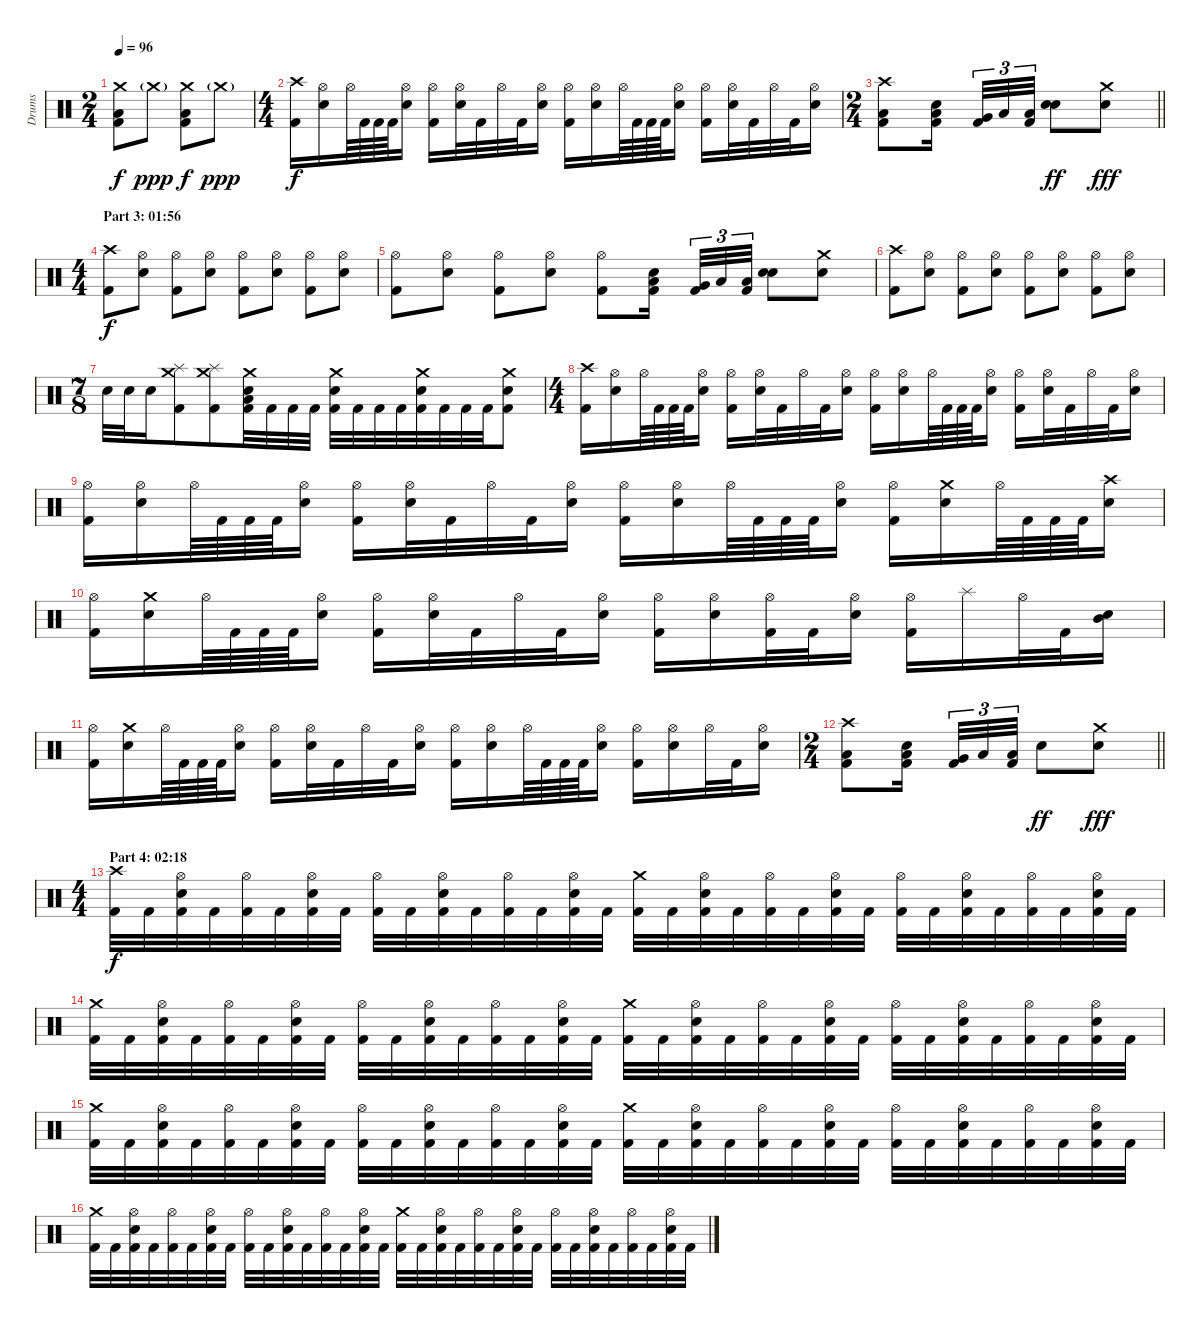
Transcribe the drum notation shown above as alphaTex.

\track ("Drums" "Drums") {instrument percussion}
\staff {score}
\articulation defaults
\ts (2 4)
\tempo 96
\clef neutral
\ks c
("Crash medium (hit)" "Low Floor Tom (hit)" "Kick (hit) 2").8{dy f} "Crash medium (hit)"{g}.8{dy ppp} ("Crash medium (hit)" "Low Floor Tom (hit)" "Kick (hit) 2").8{dy f} "Crash medium (hit)"{g}.8{dy ppp} |
\ts (4 4)
("Crash high (hit)" "Kick (hit) 2").16{dy f} ("Hi-Hat (open)" "Electric Snare (hit)").16 "Hi-Hat (open)".64 "Kick (hit) 2".64 "Kick (hit) 2".64 "Kick (hit) 2".64 ("Hi-Hat (open)" "Electric Snare (hit)").16 ("Hi-Hat (open)" "Kick (hit) 2").16 ("Hi-Hat (open)" "Electric Snare (hit)").32 "Kick (hit) 2".32 "Hi-Hat (open)".32 "Kick (hit) 2".32 ("Hi-Hat (open)" "Electric Snare (hit)").16 ("Hi-Hat (open)" "Kick (hit) 2").16 ("Hi-Hat (open)" "Electric Snare (hit)").16 "Hi-Hat (open)".64 "Kick (hit) 2".64 "Kick (hit) 2".64 "Kick (hit) 2".64 ("Hi-Hat (open)" "Electric Snare (hit)").16 ("Hi-Hat (open)" "Kick (hit) 2").16 ("Hi-Hat (open)" "Electric Snare (hit)").32 "Kick (hit) 2".32 "Hi-Hat (open)".32 "Kick (hit) 2".32 ("Hi-Hat (open)" "Electric Snare (hit)").16 |
\ts (2 4)
\barLineRight lightlight
("Crash high (hit)" "Low Floor Tom (hit)" "Kick (hit) 2").8 ("Low Tom (hit)" "Electric Snare (hit)" "Kick (hit) 2").16{bd 30 beam splitsecondary} ("Very Low Tom (hit)" "Kick (hit) 2").32{tu (3 2) bd 30} "Low Floor Tom (hit)".32{tu (3 2)} ("Low Floor Tom (hit)" "Kick (hit) 2").32{tu (3 2)} ("Electric Snare (hit)" "Electric Snare (hit)").8{bd 30 dy ff} ("Crash medium (hit)" "Electric Snare (hit)").8{dy fff} |
\ts (4 4)
\section ("" "Part 3: 01:56")
("Crash high (hit)" "Kick (hit) 2").8{dy f} ("Hi-Hat (open)" "Electric Snare (hit)").8 ("Hi-Hat (open)" "Kick (hit) 2").8 ("Hi-Hat (open)" "Electric Snare (hit)").8 ("Hi-Hat (open)" "Kick (hit) 2").8 ("Hi-Hat (open)" "Electric Snare (hit)").8 ("Hi-Hat (open)" "Kick (hit) 2").8 ("Hi-Hat (open)" "Electric Snare (hit)").8 |
("Hi-Hat (open)" "Kick (hit) 2").8 ("Hi-Hat (open)" "Electric Snare (hit)").8 ("Hi-Hat (open)" "Kick (hit) 2").8 ("Hi-Hat (open)" "Electric Snare (hit)").8 ("Hi-Hat (open)" "Kick (hit) 2").8 ("Low Tom (hit)" "Electric Snare (hit)" "Kick (hit) 2").16{bd 30 beam splitsecondary} ("Very Low Tom (hit)" "Kick (hit) 2").32{tu (3 2) bd 30} "Low Floor Tom (hit)".32{tu (3 2)} ("Low Floor Tom (hit)" "Kick (hit) 2").32{tu (3 2)} ("Electric Snare (hit)" "Electric Snare (hit)").8{bd 30} ("Crash medium (hit)" "Electric Snare (hit)").8 |
("Crash high (hit)" "Kick (hit) 2").8 ("Hi-Hat (open)" "Electric Snare (hit)").8 ("Hi-Hat (open)" "Kick (hit) 2").8 ("Hi-Hat (open)" "Electric Snare (hit)").8 ("Hi-Hat (open)" "Kick (hit) 2").8 ("Hi-Hat (open)" "Electric Snare (hit)").8 ("Hi-Hat (open)" "Kick (hit) 2").8 ("Hi-Hat (open)" "Electric Snare (hit)").8 |
\ts (7 8)
"Electric Snare (hit)".32 "Electric Snare (hit)".32 "Electric Snare (hit)".16 ("Splash (hit)" "Crash medium (hit)" "Kick (hit) 2").8 ("Splash (hit)" "Crash medium (hit)" "Kick (hit) 2").8 ("Crash medium (hit)" "Low Tom (hit)" "Electric Snare (hit)" "Kick (hit) 2").32{bd 30} "Kick (hit) 2".32 "Kick (hit) 2".32 "Kick (hit) 2".32 ("Crash medium (hit)" "Electric Snare (hit)" "Kick (hit) 2").32 "Kick (hit) 2".32 "Kick (hit) 2".32 "Kick (hit) 2".32 ("Crash medium (hit)" "Electric Snare (hit)" "Kick (hit) 2").32 "Kick (hit) 2".32 "Kick (hit) 2".32 "Kick (hit) 2".32 ("Crash medium (hit)" "Electric Snare (hit)" "Kick (hit) 2").8 |
\ts (4 4)
("Crash high (hit)" "Kick (hit) 2").16 ("Hi-Hat (open)" "Electric Snare (hit)").16 "Hi-Hat (open)".64 "Kick (hit) 2".64 "Kick (hit) 2".64 "Kick (hit) 2".64 ("Hi-Hat (open)" "Electric Snare (hit)").16 ("Hi-Hat (open)" "Kick (hit) 2").16 ("Hi-Hat (open)" "Electric Snare (hit)").32 "Kick (hit) 2".32 "Hi-Hat (open)".32 "Kick (hit) 2".32 ("Hi-Hat (open)" "Electric Snare (hit)").16 ("Hi-Hat (open)" "Kick (hit) 2").16 ("Hi-Hat (open)" "Electric Snare (hit)").16 "Hi-Hat (open)".64 "Kick (hit) 2".64 "Kick (hit) 2".64 "Kick (hit) 2".64 ("Hi-Hat (open)" "Electric Snare (hit)").16 ("Hi-Hat (open)" "Kick (hit) 2").16 ("Hi-Hat (open)" "Electric Snare (hit)").32 "Kick (hit) 2".32 "Hi-Hat (open)".32 "Kick (hit) 2".32 ("Hi-Hat (open)" "Electric Snare (hit)").16 |
("Hi-Hat (open)" "Kick (hit) 2").16 ("Hi-Hat (open)" "Electric Snare (hit)").16 "Hi-Hat (open)".64 "Kick (hit) 2".64 "Kick (hit) 2".64 "Kick (hit) 2".64 ("Hi-Hat (open)" "Electric Snare (hit)").16 ("Hi-Hat (open)" "Kick (hit) 2").16 ("Hi-Hat (open)" "Electric Snare (hit)").32 "Kick (hit) 2".32 "Hi-Hat (open)".32 "Kick (hit) 2".32 ("Hi-Hat (open)" "Electric Snare (hit)").16 ("Hi-Hat (open)" "Kick (hit) 2").16 ("Hi-Hat (open)" "Electric Snare (hit)").16 "Hi-Hat (open)".64 "Kick (hit) 2".64 "Kick (hit) 2".64 "Kick (hit) 2".64 ("Hi-Hat (open)" "Electric Snare (hit)").16 ("Hi-Hat (open)" "Kick (hit) 2").16 ("Crash medium (hit)" "Electric Snare (hit)").16 "Hi-Hat (open)".64 "Kick (hit) 2".64 "Kick (hit) 2".64 "Kick (hit) 2".64 ("Crash high (hit)" "Electric Snare (hit)").16 |
("Hi-Hat (open)" "Kick (hit) 2").16 ("Crash medium (hit)" "Electric Snare (hit)").16 "Hi-Hat (open)".64 "Kick (hit) 2".64 "Kick (hit) 2".64 "Kick (hit) 2".64 ("Hi-Hat (open)" "Electric Snare (hit)").16 ("Hi-Hat (open)" "Kick (hit) 2").16 ("Hi-Hat (open)" "Electric Snare (hit)").32 "Kick (hit) 2".32 "Hi-Hat (open)".32 "Kick (hit) 2".32 ("Hi-Hat (open)" "Electric Snare (hit)").16 ("Hi-Hat (open)" "Kick (hit) 2").16 ("Hi-Hat (open)" "Electric Snare (hit)").16 ("Hi-Hat (open)" "Kick (hit) 2").32 "Kick (hit) 2".32 ("Hi-Hat (open)" "Electric Snare (hit)").16 ("Hi-Hat (open)" "Kick (hit) 2").16 "Splash (hit)".16 "Hi-Hat (open)".32 "Kick (hit) 2".32 ("Mid Tom (hit)" "Electric Snare (hit)").16{bd 60} |
("Hi-Hat (open)" "Kick (hit) 2").16 ("Crash medium (hit)" "Electric Snare (hit)").16 "Hi-Hat (open)".64 "Kick (hit) 2".64 "Kick (hit) 2".64 "Kick (hit) 2".64 ("Hi-Hat (open)" "Electric Snare (hit)").16 ("Hi-Hat (open)" "Kick (hit) 2").16 ("Hi-Hat (open)" "Electric Snare (hit)").32 "Kick (hit) 2".32 "Hi-Hat (open)".32 "Kick (hit) 2".32 ("Hi-Hat (open)" "Electric Snare (hit)").16 ("Hi-Hat (open)" "Kick (hit) 2").16 ("Hi-Hat (open)" "Electric Snare (hit)").16 "Hi-Hat (open)".64 "Kick (hit) 2".64 "Kick (hit) 2".64 "Kick (hit) 2".64 ("Hi-Hat (open)" "Electric Snare (hit)").16 ("Hi-Hat (open)" "Kick (hit) 2").16 ("Hi-Hat (open)" "Electric Snare (hit)").16 "Hi-Hat (open)".32 "Kick (hit) 2".32 ("Hi-Hat (open)" "Electric Snare (hit)").16 |
\ts (2 4)
\barLineRight lightlight
("Crash high (hit)" "Low Floor Tom (hit)" "Kick (hit) 2").8 ("Low Tom (hit)" "Electric Snare (hit)" "Kick (hit) 2").16{bd 30 beam splitsecondary} ("Very Low Tom (hit)" "Kick (hit) 2").32{tu (3 2) bd 30} "Low Floor Tom (hit)".32{tu (3 2)} ("Low Floor Tom (hit)" "Kick (hit) 2").32{tu (3 2)} "Electric Snare (hit)".8{dy ff} ("Crash medium (hit)" "Electric Snare (hit)").8{dy fff} |
\ts (4 4)
\section ("" "Part 4: 02:18")
("Crash high (hit)" "Kick (hit) 2").32{dy f} "Kick (hit) 2".32 ("Hi-Hat (open)" "Electric Snare (hit)" "Kick (hit) 2").32 "Kick (hit) 2".32 ("Hi-Hat (open)" "Kick (hit) 2").32 "Kick (hit) 2".32 ("Hi-Hat (open)" "Electric Snare (hit)" "Kick (hit) 2").32 "Kick (hit) 2".32 ("Hi-Hat (open)" "Kick (hit) 2").32 "Kick (hit) 2".32 ("Hi-Hat (open)" "Electric Snare (hit)" "Kick (hit) 2").32 "Kick (hit) 2".32 ("Hi-Hat (open)" "Kick (hit) 2").32 "Kick (hit) 2".32 ("Hi-Hat (open)" "Electric Snare (hit)" "Kick (hit) 2").32 "Kick (hit) 2".32 ("Crash medium (hit)" "Kick (hit) 2").32 "Kick (hit) 2".32 ("Hi-Hat (open)" "Electric Snare (hit)" "Kick (hit) 2").32 "Kick (hit) 2".32 ("Hi-Hat (open)" "Kick (hit) 2").32 "Kick (hit) 2".32 ("Hi-Hat (open)" "Electric Snare (hit)" "Kick (hit) 2").32 "Kick (hit) 2".32 ("Hi-Hat (open)" "Kick (hit) 2").32 "Kick (hit) 2".32 ("Hi-Hat (open)" "Electric Snare (hit)" "Kick (hit) 2").32 "Kick (hit) 2".32 ("Hi-Hat (open)" "Kick (hit) 2").32 "Kick (hit) 2".32 ("Hi-Hat (open)" "Electric Snare (hit)" "Kick (hit) 2").32 "Kick (hit) 2".32 |
("Crash medium (hit)" "Kick (hit) 2").32 "Kick (hit) 2".32 ("Hi-Hat (open)" "Electric Snare (hit)" "Kick (hit) 2").32 "Kick (hit) 2".32 ("Hi-Hat (open)" "Kick (hit) 2").32 "Kick (hit) 2".32 ("Hi-Hat (open)" "Electric Snare (hit)" "Kick (hit) 2").32 "Kick (hit) 2".32 ("Hi-Hat (open)" "Kick (hit) 2").32 "Kick (hit) 2".32 ("Hi-Hat (open)" "Electric Snare (hit)" "Kick (hit) 2").32 "Kick (hit) 2".32 ("Hi-Hat (open)" "Kick (hit) 2").32 "Kick (hit) 2".32 ("Hi-Hat (open)" "Electric Snare (hit)" "Kick (hit) 2").32 "Kick (hit) 2".32 ("Crash medium (hit)" "Kick (hit) 2").32 "Kick (hit) 2".32 ("Hi-Hat (open)" "Electric Snare (hit)" "Kick (hit) 2").32 "Kick (hit) 2".32 ("Hi-Hat (open)" "Kick (hit) 2").32 "Kick (hit) 2".32 ("Hi-Hat (open)" "Electric Snare (hit)" "Kick (hit) 2").32 "Kick (hit) 2".32 ("Hi-Hat (open)" "Kick (hit) 2").32 "Kick (hit) 2".32 ("Hi-Hat (open)" "Electric Snare (hit)" "Kick (hit) 2").32 "Kick (hit) 2".32 ("Hi-Hat (open)" "Kick (hit) 2").32 "Kick (hit) 2".32 ("Hi-Hat (open)" "Electric Snare (hit)" "Kick (hit) 2").32 "Kick (hit) 2".32 |
("Crash medium (hit)" "Kick (hit) 2").32 "Kick (hit) 2".32 ("Hi-Hat (open)" "Electric Snare (hit)" "Kick (hit) 2").32 "Kick (hit) 2".32 ("Hi-Hat (open)" "Kick (hit) 2").32 "Kick (hit) 2".32 ("Hi-Hat (open)" "Electric Snare (hit)" "Kick (hit) 2").32 "Kick (hit) 2".32 ("Hi-Hat (open)" "Kick (hit) 2").32 "Kick (hit) 2".32 ("Hi-Hat (open)" "Electric Snare (hit)" "Kick (hit) 2").32 "Kick (hit) 2".32 ("Hi-Hat (open)" "Kick (hit) 2").32 "Kick (hit) 2".32 ("Hi-Hat (open)" "Electric Snare (hit)" "Kick (hit) 2").32 "Kick (hit) 2".32 ("Crash medium (hit)" "Kick (hit) 2").32 "Kick (hit) 2".32 ("Hi-Hat (open)" "Electric Snare (hit)" "Kick (hit) 2").32 "Kick (hit) 2".32 ("Hi-Hat (open)" "Kick (hit) 2").32 "Kick (hit) 2".32 ("Hi-Hat (open)" "Electric Snare (hit)" "Kick (hit) 2").32 "Kick (hit) 2".32 ("Hi-Hat (open)" "Kick (hit) 2").32 "Kick (hit) 2".32 ("Hi-Hat (open)" "Electric Snare (hit)" "Kick (hit) 2").32 "Kick (hit) 2".32 ("Hi-Hat (open)" "Kick (hit) 2").32 "Kick (hit) 2".32 ("Hi-Hat (open)" "Electric Snare (hit)" "Kick (hit) 2").32 "Kick (hit) 2".32 |
("Crash medium (hit)" "Kick (hit) 2").32 "Kick (hit) 2".32 ("Hi-Hat (open)" "Electric Snare (hit)" "Kick (hit) 2").32 "Kick (hit) 2".32 ("Hi-Hat (open)" "Kick (hit) 2").32 "Kick (hit) 2".32 ("Hi-Hat (open)" "Electric Snare (hit)" "Kick (hit) 2").32 "Kick (hit) 2".32 ("Hi-Hat (open)" "Kick (hit) 2").32 "Kick (hit) 2".32 ("Hi-Hat (open)" "Electric Snare (hit)" "Kick (hit) 2").32 "Kick (hit) 2".32 ("Hi-Hat (open)" "Kick (hit) 2").32 "Kick (hit) 2".32 ("Hi-Hat (open)" "Electric Snare (hit)" "Kick (hit) 2").32 "Kick (hit) 2".32 ("Crash medium (hit)" "Kick (hit) 2").32 "Kick (hit) 2".32 ("Hi-Hat (open)" "Electric Snare (hit)" "Kick (hit) 2").32 "Kick (hit) 2".32 ("Hi-Hat (open)" "Kick (hit) 2").32 "Kick (hit) 2".32 ("Hi-Hat (open)" "Electric Snare (hit)" "Kick (hit) 2").32 "Kick (hit) 2".32 ("Hi-Hat (open)" "Kick (hit) 2").32 "Kick (hit) 2".32 ("Hi-Hat (open)" "Electric Snare (hit)" "Kick (hit) 2").32 "Kick (hit) 2".32 ("Hi-Hat (open)" "Kick (hit) 2").32 "Kick (hit) 2".32 ("Hi-Hat (open)" "Electric Snare (hit)" "Kick (hit) 2").32 "Kick (hit) 2".32
